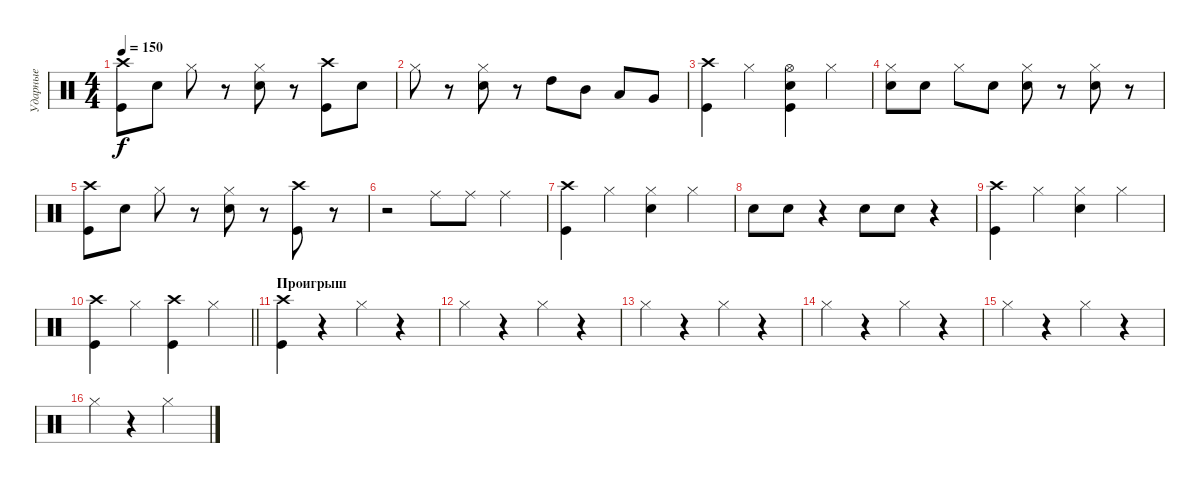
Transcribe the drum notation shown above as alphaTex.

\track ("Ударные" "Ударные") {instrument percussion}
\staff {score}
\articulation defaults
\ts (4 4)
\tempo 150
\clef neutral
\ks c
("Crash high (hit)" "Kick (hit)").8{dy f} "Snare (hit) 2".8 "Hi-Hat (closed)".8 r.8 ("Hi-Hat (closed)" "Snare (hit) 2").8 r.8 ("Crash high (hit)" "Kick (hit)").8 "Snare (hit) 2".8 |
"Hi-Hat (closed)".8 r.8 ("Hi-Hat (closed)" "Snare (hit) 2").8 r.8 "High Tom (hit)".8 "Mid Tom (hit)".8 "Low Tom (hit)".8 "Very Low Tom (hit)".8 |
("Crash high (hit)" "Kick (hit)").4 "Hi-Hat (closed)".4 ("Hi-Hat (open)" "Snare (hit) 2" "Kick (hit)").4 "Hi-Hat (closed)".4 |
("Hi-Hat (closed)" "Snare (hit) 2").8 "Snare (hit) 2".8 "Hi-Hat (closed)".8 "Snare (hit) 2".8 ("Hi-Hat (closed)" "Snare (hit) 2").8 r.8 ("Hi-Hat (closed)" "Snare (hit) 2").8 r.8 |
("Crash high (hit)" "Kick (hit)").8 "Snare (hit) 2".8 "Hi-Hat (closed)".8 r.8 ("Hi-Hat (closed)" "Snare (hit) 2").8 r.8 ("Crash high (hit)" "Kick (hit)").8 r.8 |
r.2 "Ride (middle)".8 "Ride (middle)".8 "Ride (middle)".4 |
("Crash high (hit)" "Kick (hit)").4 "Hi-Hat (closed)".4 ("Hi-Hat (closed)" "Snare (hit) 2").4 "Hi-Hat (closed)".4 |
"Snare (hit) 2".8 "Snare (hit) 2".8 r.4 "Snare (hit) 2".8 "Snare (hit) 2".8 r.4 |
("Crash high (hit)" "Kick (hit)").4 "Hi-Hat (closed)".4 ("Hi-Hat (closed)" "Snare (hit) 2").4 "Hi-Hat (closed)".4 |
\barLineRight lightlight
("Crash high (hit)" "Kick (hit)").4 "Hi-Hat (closed)".4 ("Crash high (hit)" "Kick (hit)").4 "Hi-Hat (closed)".4 |
\section ("" "Проигрыш")
("Crash high (hit)" "Kick (hit)").4 r.4 "Hi-Hat (closed)".4 r.4 |
"Hi-Hat (closed)".4 r.4 "Hi-Hat (closed)".4 r.4 |
"Hi-Hat (closed)".4 r.4 "Hi-Hat (closed)".4 r.4 |
"Hi-Hat (closed)".4 r.4 "Hi-Hat (closed)".4 r.4 |
"Hi-Hat (closed)".4 r.4 "Hi-Hat (closed)".4 r.4 |
"Hi-Hat (closed)".4 r.4 "Hi-Hat (closed)".2
